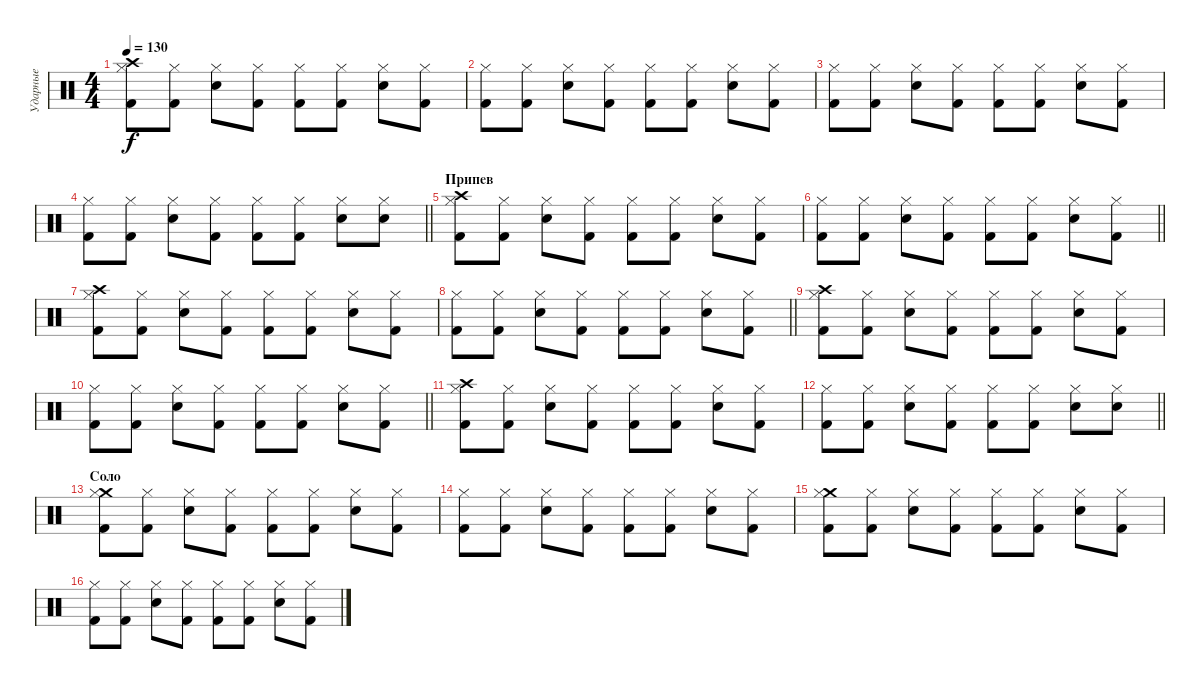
\track ("Ударные" "Ударные") {instrument percussion}
\staff {score}
\articulation defaults
\ts (4 4)
\tempo 130
\clef neutral
\ks c
("Kick (hit) 2" "Crash high (hit)" "Hi-Hat (closed)").8{dy f} ("Kick (hit) 2" "Hi-Hat (closed)").8 ("Snare (hit) 2" "Hi-Hat (closed)").8 ("Kick (hit) 2" "Hi-Hat (closed)").8 ("Kick (hit) 2" "Hi-Hat (closed)").8 ("Kick (hit) 2" "Hi-Hat (closed)").8 ("Snare (hit) 2" "Hi-Hat (closed)").8 ("Kick (hit) 2" "Hi-Hat (closed)").8 |
("Kick (hit) 2" "Hi-Hat (closed)").8 ("Kick (hit) 2" "Hi-Hat (closed)").8 ("Snare (hit) 2" "Hi-Hat (closed)").8 ("Kick (hit) 2" "Hi-Hat (closed)").8 ("Kick (hit) 2" "Hi-Hat (closed)").8 ("Kick (hit) 2" "Hi-Hat (closed)").8 ("Snare (hit) 2" "Hi-Hat (closed)").8 ("Kick (hit) 2" "Hi-Hat (closed)").8 |
("Kick (hit) 2" "Hi-Hat (closed)").8 ("Kick (hit) 2" "Hi-Hat (closed)").8 ("Snare (hit) 2" "Hi-Hat (closed)").8 ("Kick (hit) 2" "Hi-Hat (closed)").8 ("Kick (hit) 2" "Hi-Hat (closed)").8 ("Kick (hit) 2" "Hi-Hat (closed)").8 ("Snare (hit) 2" "Hi-Hat (closed)").8 ("Kick (hit) 2" "Hi-Hat (closed)").8 |
\barLineRight lightlight
("Kick (hit) 2" "Hi-Hat (closed)").8 ("Kick (hit) 2" "Hi-Hat (closed)").8 ("Snare (hit) 2" "Hi-Hat (closed)").8 ("Kick (hit) 2" "Hi-Hat (closed)").8 ("Kick (hit) 2" "Hi-Hat (closed)").8 ("Kick (hit) 2" "Hi-Hat (closed)").8 ("Snare (hit) 2" "Hi-Hat (closed)").8 ("Snare (hit) 2" "Hi-Hat (closed)").8 |
\section ("" "Припев")
("Kick (hit) 2" "Crash high (hit)" "Hi-Hat (closed)").8 ("Kick (hit) 2" "Hi-Hat (closed)").8 ("Snare (hit) 2" "Hi-Hat (closed)").8 ("Kick (hit) 2" "Hi-Hat (closed)").8 ("Kick (hit) 2" "Hi-Hat (closed)").8 ("Kick (hit) 2" "Hi-Hat (closed)").8 ("Snare (hit) 2" "Hi-Hat (closed)").8 ("Kick (hit) 2" "Hi-Hat (closed)").8 |
\barLineRight lightlight
("Kick (hit) 2" "Hi-Hat (closed)").8 ("Kick (hit) 2" "Hi-Hat (closed)").8 ("Snare (hit) 2" "Hi-Hat (closed)").8 ("Kick (hit) 2" "Hi-Hat (closed)").8 ("Kick (hit) 2" "Hi-Hat (closed)").8 ("Kick (hit) 2" "Hi-Hat (closed)").8 ("Snare (hit) 2" "Hi-Hat (closed)").8 ("Kick (hit) 2" "Hi-Hat (closed)").8 |
("Kick (hit) 2" "Crash high (hit)" "Hi-Hat (closed)").8 ("Kick (hit) 2" "Hi-Hat (closed)").8 ("Snare (hit) 2" "Hi-Hat (closed)").8 ("Kick (hit) 2" "Hi-Hat (closed)").8 ("Kick (hit) 2" "Hi-Hat (closed)").8 ("Kick (hit) 2" "Hi-Hat (closed)").8 ("Snare (hit) 2" "Hi-Hat (closed)").8 ("Kick (hit) 2" "Hi-Hat (closed)").8 |
\barLineRight lightlight
("Kick (hit) 2" "Hi-Hat (closed)").8 ("Kick (hit) 2" "Hi-Hat (closed)").8 ("Snare (hit) 2" "Hi-Hat (closed)").8 ("Kick (hit) 2" "Hi-Hat (closed)").8 ("Kick (hit) 2" "Hi-Hat (closed)").8 ("Kick (hit) 2" "Hi-Hat (closed)").8 ("Snare (hit) 2" "Hi-Hat (closed)").8 ("Kick (hit) 2" "Hi-Hat (closed)").8 |
("Kick (hit) 2" "Crash high (hit)" "Hi-Hat (closed)").8 ("Kick (hit) 2" "Hi-Hat (closed)").8 ("Snare (hit) 2" "Hi-Hat (closed)").8 ("Kick (hit) 2" "Hi-Hat (closed)").8 ("Kick (hit) 2" "Hi-Hat (closed)").8 ("Kick (hit) 2" "Hi-Hat (closed)").8 ("Snare (hit) 2" "Hi-Hat (closed)").8 ("Kick (hit) 2" "Hi-Hat (closed)").8 |
\barLineRight lightlight
("Kick (hit) 2" "Hi-Hat (closed)").8 ("Kick (hit) 2" "Hi-Hat (closed)").8 ("Snare (hit) 2" "Hi-Hat (closed)").8 ("Kick (hit) 2" "Hi-Hat (closed)").8 ("Kick (hit) 2" "Hi-Hat (closed)").8 ("Kick (hit) 2" "Hi-Hat (closed)").8 ("Snare (hit) 2" "Hi-Hat (closed)").8 ("Kick (hit) 2" "Hi-Hat (closed)").8 |
("Kick (hit) 2" "Crash high (hit)" "Hi-Hat (closed)").8 ("Kick (hit) 2" "Hi-Hat (closed)").8 ("Snare (hit) 2" "Hi-Hat (closed)").8 ("Kick (hit) 2" "Hi-Hat (closed)").8 ("Kick (hit) 2" "Hi-Hat (closed)").8 ("Kick (hit) 2" "Hi-Hat (closed)").8 ("Snare (hit) 2" "Hi-Hat (closed)").8 ("Kick (hit) 2" "Hi-Hat (closed)").8 |
\barLineRight lightlight
("Kick (hit) 2" "Hi-Hat (closed)").8 ("Kick (hit) 2" "Hi-Hat (closed)").8 ("Snare (hit) 2" "Hi-Hat (closed)").8 ("Kick (hit) 2" "Hi-Hat (closed)").8 ("Kick (hit) 2" "Hi-Hat (closed)").8 ("Kick (hit) 2" "Hi-Hat (closed)").8 ("Snare (hit) 2" "Hi-Hat (closed)").8 ("Snare (hit) 2" "Hi-Hat (closed)").8 |
\section ("" "Соло")
("Kick (hit) 2" "Crash medium (hit)" "Hi-Hat (closed)").8 ("Kick (hit) 2" "Hi-Hat (closed)").8 ("Snare (hit) 2" "Hi-Hat (closed)").8 ("Kick (hit) 2" "Hi-Hat (closed)").8 ("Kick (hit) 2" "Hi-Hat (closed)").8 ("Kick (hit) 2" "Hi-Hat (closed)").8 ("Snare (hit) 2" "Hi-Hat (closed)").8 ("Kick (hit) 2" "Hi-Hat (closed)").8 |
("Kick (hit) 2" "Hi-Hat (closed)").8 ("Kick (hit) 2" "Hi-Hat (closed)").8 ("Snare (hit) 2" "Hi-Hat (closed)").8 ("Kick (hit) 2" "Hi-Hat (closed)").8 ("Kick (hit) 2" "Hi-Hat (closed)").8 ("Kick (hit) 2" "Hi-Hat (closed)").8 ("Snare (hit) 2" "Hi-Hat (closed)").8 ("Kick (hit) 2" "Hi-Hat (closed)").8 |
("Kick (hit) 2" "Crash medium (hit)" "Hi-Hat (closed)").8 ("Kick (hit) 2" "Hi-Hat (closed)").8 ("Snare (hit) 2" "Hi-Hat (closed)").8 ("Kick (hit) 2" "Hi-Hat (closed)").8 ("Kick (hit) 2" "Hi-Hat (closed)").8 ("Kick (hit) 2" "Hi-Hat (closed)").8 ("Snare (hit) 2" "Hi-Hat (closed)").8 ("Kick (hit) 2" "Hi-Hat (closed)").8 |
("Kick (hit) 2" "Hi-Hat (closed)").8 ("Kick (hit) 2" "Hi-Hat (closed)").8 ("Snare (hit) 2" "Hi-Hat (closed)").8 ("Kick (hit) 2" "Hi-Hat (closed)").8 ("Kick (hit) 2" "Hi-Hat (closed)").8 ("Kick (hit) 2" "Hi-Hat (closed)").8 ("Snare (hit) 2" "Hi-Hat (closed)").8 ("Kick (hit) 2" "Hi-Hat (closed)").8
